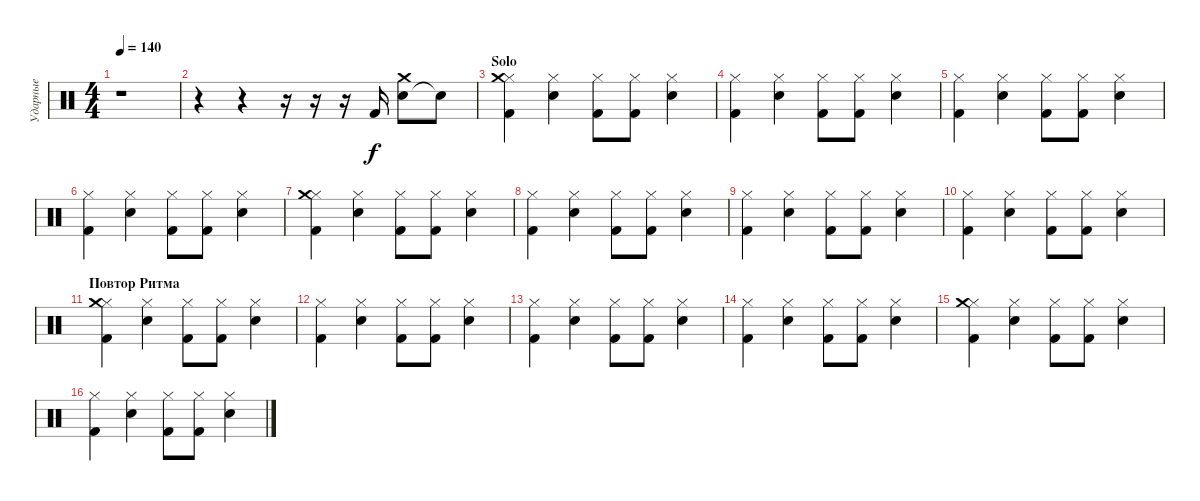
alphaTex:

\track ("Ударные" "Ударные") {instrument percussion}
\staff {score}
\articulation defaults
\ts (4 4)
\tempo 140
\clef neutral
\ks c
r.1{dy f} |
r.4 r.4 r.16 r.16 r.16 "Kick (hit) 2".16 ("Snare (hit) 2" "Crash medium (hit)").8 "Snare (hit)"{t}.8 |
\section ("" "Solo")
("Kick (hit) 2" "Hi-Hat (closed)" "Crash medium (hit)").4 ("Snare (hit) 2" "Hi-Hat (closed)").4 ("Kick (hit) 2" "Hi-Hat (closed)").8 ("Kick (hit) 2" "Hi-Hat (closed)").8 ("Snare (hit) 2" "Hi-Hat (closed)").4 |
("Kick (hit) 2" "Hi-Hat (closed)").4 ("Snare (hit) 2" "Hi-Hat (closed)").4 ("Kick (hit) 2" "Hi-Hat (closed)").8 ("Kick (hit) 2" "Hi-Hat (closed)").8 ("Snare (hit) 2" "Hi-Hat (closed)").4 |
("Kick (hit) 2" "Hi-Hat (closed)").4 ("Snare (hit) 2" "Hi-Hat (closed)").4 ("Kick (hit) 2" "Hi-Hat (closed)").8 ("Kick (hit) 2" "Hi-Hat (closed)").8 ("Snare (hit) 2" "Hi-Hat (closed)").4 |
("Kick (hit) 2" "Hi-Hat (closed)").4 ("Snare (hit) 2" "Hi-Hat (closed)").4 ("Kick (hit) 2" "Hi-Hat (closed)").8 ("Kick (hit) 2" "Hi-Hat (closed)").8 ("Snare (hit) 2" "Hi-Hat (closed)").4 |
("Kick (hit) 2" "Hi-Hat (closed)" "Crash medium (hit)").4 ("Snare (hit) 2" "Hi-Hat (closed)").4 ("Kick (hit) 2" "Hi-Hat (closed)").8 ("Kick (hit) 2" "Hi-Hat (closed)").8 ("Snare (hit) 2" "Hi-Hat (closed)").4 |
("Kick (hit) 2" "Hi-Hat (closed)").4 ("Snare (hit) 2" "Hi-Hat (closed)").4 ("Kick (hit) 2" "Hi-Hat (closed)").8 ("Kick (hit) 2" "Hi-Hat (closed)").8 ("Snare (hit) 2" "Hi-Hat (closed)").4 |
("Kick (hit) 2" "Hi-Hat (closed)").4 ("Snare (hit) 2" "Hi-Hat (closed)").4 ("Kick (hit) 2" "Hi-Hat (closed)").8 ("Kick (hit) 2" "Hi-Hat (closed)").8 ("Snare (hit) 2" "Hi-Hat (closed)").4 |
("Kick (hit) 2" "Hi-Hat (closed)").4 ("Snare (hit) 2" "Hi-Hat (closed)").4 ("Kick (hit) 2" "Hi-Hat (closed)").8 ("Kick (hit) 2" "Hi-Hat (closed)").8 ("Snare (hit) 2" "Hi-Hat (closed)").4 |
\section ("" "Повтор Ритма")
("Kick (hit) 2" "Hi-Hat (closed)" "Crash medium (hit)").4 ("Snare (hit) 2" "Hi-Hat (closed)").4 ("Kick (hit) 2" "Hi-Hat (closed)").8 ("Kick (hit) 2" "Hi-Hat (closed)").8 ("Snare (hit) 2" "Hi-Hat (closed)").4 |
("Kick (hit) 2" "Hi-Hat (closed)").4 ("Snare (hit) 2" "Hi-Hat (closed)").4 ("Kick (hit) 2" "Hi-Hat (closed)").8 ("Kick (hit) 2" "Hi-Hat (closed)").8 ("Snare (hit) 2" "Hi-Hat (closed)").4 |
("Kick (hit) 2" "Hi-Hat (closed)").4 ("Snare (hit) 2" "Hi-Hat (closed)").4 ("Kick (hit) 2" "Hi-Hat (closed)").8 ("Kick (hit) 2" "Hi-Hat (closed)").8 ("Snare (hit) 2" "Hi-Hat (closed)").4 |
("Kick (hit) 2" "Hi-Hat (closed)").4 ("Snare (hit) 2" "Hi-Hat (closed)").4 ("Kick (hit) 2" "Hi-Hat (closed)").8 ("Kick (hit) 2" "Hi-Hat (closed)").8 ("Snare (hit) 2" "Hi-Hat (closed)").4 |
("Kick (hit) 2" "Hi-Hat (closed)" "Crash medium (hit)").4 ("Snare (hit) 2" "Hi-Hat (closed)").4 ("Kick (hit) 2" "Hi-Hat (closed)").8 ("Kick (hit) 2" "Hi-Hat (closed)").8 ("Snare (hit) 2" "Hi-Hat (closed)").4 |
("Kick (hit) 2" "Hi-Hat (closed)").4 ("Snare (hit) 2" "Hi-Hat (closed)").4 ("Kick (hit) 2" "Hi-Hat (closed)").8 ("Kick (hit) 2" "Hi-Hat (closed)").8 ("Snare (hit) 2" "Hi-Hat (closed)").4
